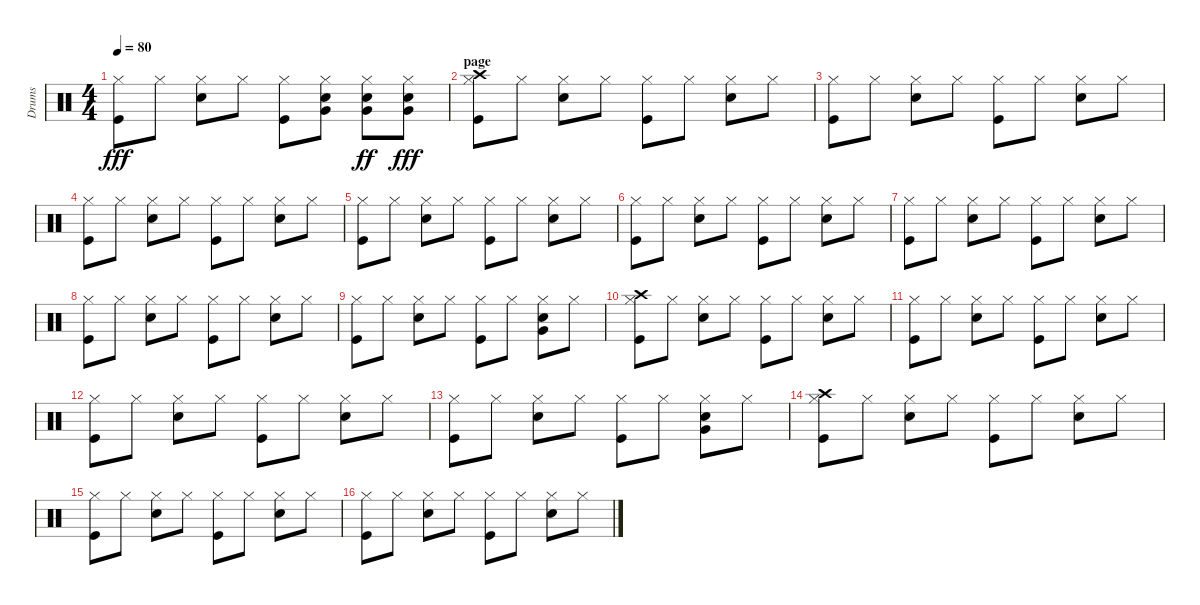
\track ("Drums" "Drums") {instrument percussion}
\staff {score}
\articulation defaults
\ts (4 4)
\tempo 80
\clef neutral
\ks c
("Hi-Hat (closed)" "Kick (hit)").8{dy fff} "Hi-Hat (closed)".8 ("Hi-Hat (closed)" "Snare (hit) 2").8 "Hi-Hat (closed)".8 ("Hi-Hat (closed)" "Kick (hit)").8 ("Hi-Hat (closed)" "Snare (hit) 2" "Very Low Tom (hit)").8 ("Hi-Hat (closed)" "Snare (hit) 2" "Very Low Tom (hit)").8{dy ff} ("Hi-Hat (closed)" "Snare (hit) 2" "Very Low Tom (hit)").8{dy fff} |
\section ("" "page")
("Hi-Hat (closed)" "Kick (hit)" "Crash high (hit)").8 "Hi-Hat (closed)".8 ("Hi-Hat (closed)" "Snare (hit) 2").8 "Hi-Hat (closed)".8 ("Hi-Hat (closed)" "Kick (hit)").8 "Hi-Hat (closed)".8 ("Hi-Hat (closed)" "Snare (hit) 2").8 "Hi-Hat (closed)".8 |
("Hi-Hat (closed)" "Kick (hit)").8 "Hi-Hat (closed)".8 ("Hi-Hat (closed)" "Snare (hit) 2").8 "Hi-Hat (closed)".8 ("Hi-Hat (closed)" "Kick (hit)").8 "Hi-Hat (closed)".8 ("Hi-Hat (closed)" "Snare (hit) 2").8 "Hi-Hat (closed)".8 |
("Hi-Hat (closed)" "Kick (hit)").8 "Hi-Hat (closed)".8 ("Hi-Hat (closed)" "Snare (hit) 2").8 "Hi-Hat (closed)".8 ("Hi-Hat (closed)" "Kick (hit)").8 "Hi-Hat (closed)".8 ("Hi-Hat (closed)" "Snare (hit) 2").8 "Hi-Hat (closed)".8 |
("Hi-Hat (closed)" "Kick (hit)").8 "Hi-Hat (closed)".8 ("Hi-Hat (closed)" "Snare (hit) 2").8 "Hi-Hat (closed)".8 ("Hi-Hat (closed)" "Kick (hit)").8 "Hi-Hat (closed)".8 ("Hi-Hat (closed)" "Snare (hit) 2").8 "Hi-Hat (closed)".8 |
("Hi-Hat (closed)" "Kick (hit)").8 "Hi-Hat (closed)".8 ("Hi-Hat (closed)" "Snare (hit) 2").8 "Hi-Hat (closed)".8 ("Hi-Hat (closed)" "Kick (hit)").8 "Hi-Hat (closed)".8 ("Hi-Hat (closed)" "Snare (hit) 2").8 "Hi-Hat (closed)".8 |
("Hi-Hat (closed)" "Kick (hit)").8 "Hi-Hat (closed)".8 ("Hi-Hat (closed)" "Snare (hit) 2").8 "Hi-Hat (closed)".8 ("Hi-Hat (closed)" "Kick (hit)").8 "Hi-Hat (closed)".8 ("Hi-Hat (closed)" "Snare (hit) 2").8 "Hi-Hat (closed)".8 |
("Hi-Hat (closed)" "Kick (hit)").8 "Hi-Hat (closed)".8 ("Hi-Hat (closed)" "Snare (hit) 2").8 "Hi-Hat (closed)".8 ("Hi-Hat (closed)" "Kick (hit)").8 "Hi-Hat (closed)".8 ("Hi-Hat (closed)" "Snare (hit) 2").8 "Hi-Hat (closed)".8 |
("Hi-Hat (closed)" "Kick (hit)").8 "Hi-Hat (closed)".8 ("Hi-Hat (closed)" "Snare (hit) 2").8 "Hi-Hat (closed)".8 ("Hi-Hat (closed)" "Kick (hit)").8 "Hi-Hat (closed)".8 ("Hi-Hat (closed)" "Snare (hit) 2" "Very Low Tom (hit)").8 "Hi-Hat (closed)".8 |
("Hi-Hat (closed)" "Kick (hit)" "Crash high (hit)").8 "Hi-Hat (closed)".8 ("Hi-Hat (closed)" "Snare (hit) 2").8 "Hi-Hat (closed)".8 ("Hi-Hat (closed)" "Kick (hit)").8 "Hi-Hat (closed)".8 ("Hi-Hat (closed)" "Snare (hit) 2").8 "Hi-Hat (closed)".8 |
("Hi-Hat (closed)" "Kick (hit)").8 "Hi-Hat (closed)".8 ("Hi-Hat (closed)" "Snare (hit) 2").8 "Hi-Hat (closed)".8 ("Hi-Hat (closed)" "Kick (hit)").8 "Hi-Hat (closed)".8 ("Hi-Hat (closed)" "Snare (hit) 2").8 "Hi-Hat (closed)".8 |
("Hi-Hat (closed)" "Kick (hit)").8 "Hi-Hat (closed)".8 ("Hi-Hat (closed)" "Snare (hit) 2").8 "Hi-Hat (closed)".8 ("Hi-Hat (closed)" "Kick (hit)").8 "Hi-Hat (closed)".8 ("Hi-Hat (closed)" "Snare (hit) 2").8 "Hi-Hat (closed)".8 |
("Hi-Hat (closed)" "Kick (hit)").8 "Hi-Hat (closed)".8 ("Hi-Hat (closed)" "Snare (hit) 2").8 "Hi-Hat (closed)".8 ("Hi-Hat (closed)" "Kick (hit)").8 "Hi-Hat (closed)".8 ("Hi-Hat (closed)" "Snare (hit) 2" "Very Low Tom (hit)").8 "Hi-Hat (closed)".8 |
("Hi-Hat (closed)" "Kick (hit)" "Crash high (hit)").8 "Hi-Hat (closed)".8 ("Hi-Hat (closed)" "Snare (hit) 2").8 "Hi-Hat (closed)".8 ("Hi-Hat (closed)" "Kick (hit)").8 "Hi-Hat (closed)".8 ("Hi-Hat (closed)" "Snare (hit) 2").8 "Hi-Hat (closed)".8 |
("Hi-Hat (closed)" "Kick (hit)").8 "Hi-Hat (closed)".8 ("Hi-Hat (closed)" "Snare (hit) 2").8 "Hi-Hat (closed)".8 ("Hi-Hat (closed)" "Kick (hit)").8 "Hi-Hat (closed)".8 ("Hi-Hat (closed)" "Snare (hit) 2").8 "Hi-Hat (closed)".8 |
("Hi-Hat (closed)" "Kick (hit)").8 "Hi-Hat (closed)".8 ("Hi-Hat (closed)" "Snare (hit) 2").8 "Hi-Hat (closed)".8 ("Hi-Hat (closed)" "Kick (hit)").8 "Hi-Hat (closed)".8 ("Hi-Hat (closed)" "Snare (hit) 2").8 "Hi-Hat (closed)".8
